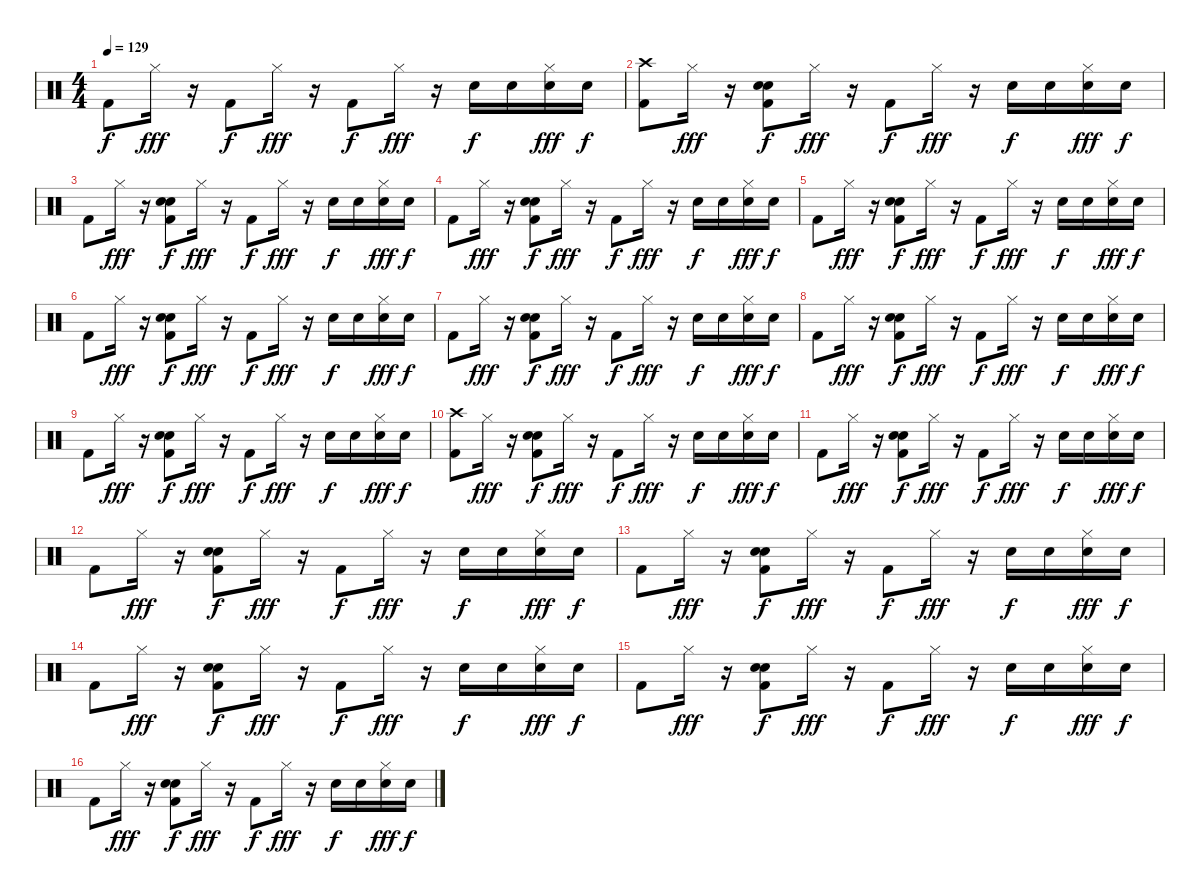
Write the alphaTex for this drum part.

\track "" {instrument percussion}
\staff {score}
\articulation defaults
\ts (4 4)
\tempo 129
\clef neutral
\ks c "Kick (hit) 2".8{dy f} "Hi-Hat (closed)".16{dy fff}
r.16 "Kick (hit) 2".8{dy f} "Hi-Hat (closed)".16{dy fff} r.16 "Kick (hit) 2".8{dy f} "Hi-Hat (closed)".16{dy fff} r.16 "Snare (hit) 2".16{dy f} "Snare (hit) 2".16 ("Snare (hit) 2" "Hi-Hat (closed)").16{dy fff} "Snare (hit) 2".16{dy f} |
("Kick (hit) 2" "Crash high (hit)").8 "Hi-Hat (closed)".16{dy fff} r.16 ("Kick (hit) 2" "Snare (hit) 2" "Hand Clap (hit)").8{dy f} "Hi-Hat (closed)".16{dy fff} r.16 "Kick (hit) 2".8{dy f} "Hi-Hat (closed)".16{dy fff} r.16 "Snare (hit) 2".16{dy f} "Snare (hit) 2".16 ("Snare (hit) 2" "Hi-Hat (closed)").16{dy fff} "Snare (hit) 2".16{dy f} |
"Kick (hit) 2".8 "Hi-Hat (closed)".16{dy fff} r.16 ("Snare (hit) 2" "Hand Clap (hit)" "Kick (hit) 2").8{dy f} "Hi-Hat (closed)".16{dy fff} r.16 "Kick (hit) 2".8{dy f} "Hi-Hat (closed)".16{dy fff} r.16 "Snare (hit) 2".16{dy f} "Snare (hit) 2".16 ("Snare (hit) 2" "Hi-Hat (closed)").16{dy fff} "Snare (hit) 2".16{dy f} |
"Kick (hit) 2".8 "Hi-Hat (closed)".16{dy fff} r.16 ("Snare (hit) 2" "Hand Clap (hit)" "Kick (hit) 2").8{dy f} "Hi-Hat (closed)".16{dy fff} r.16 "Kick (hit) 2".8{dy f} "Hi-Hat (closed)".16{dy fff} r.16 "Snare (hit) 2".16{dy f} "Snare (hit) 2".16 ("Snare (hit) 2" "Hi-Hat (closed)").16{dy fff} "Snare (hit) 2".16{dy f} |
"Kick (hit) 2".8 "Hi-Hat (closed)".16{dy fff} r.16 ("Snare (hit) 2" "Hand Clap (hit)" "Kick (hit) 2").8{dy f} "Hi-Hat (closed)".16{dy fff} r.16 "Kick (hit) 2".8{dy f} "Hi-Hat (closed)".16{dy fff} r.16 "Snare (hit) 2".16{dy f} "Snare (hit) 2".16 ("Snare (hit) 2" "Hi-Hat (closed)").16{dy fff} "Snare (hit) 2".16{dy f} |
"Kick (hit) 2".8 "Hi-Hat (closed)".16{dy fff} r.16 ("Snare (hit) 2" "Hand Clap (hit)" "Kick (hit) 2").8{dy f} "Hi-Hat (closed)".16{dy fff} r.16 "Kick (hit) 2".8{dy f} "Hi-Hat (closed)".16{dy fff} r.16 "Snare (hit) 2".16{dy f} "Snare (hit) 2".16 ("Snare (hit) 2" "Hi-Hat (closed)").16{dy fff} "Snare (hit) 2".16{dy f} |
"Kick (hit) 2".8 "Hi-Hat (closed)".16{dy fff} r.16 ("Snare (hit) 2" "Hand Clap (hit)" "Kick (hit) 2").8{dy f} "Hi-Hat (closed)".16{dy fff} r.16 "Kick (hit) 2".8{dy f} "Hi-Hat (closed)".16{dy fff} r.16 "Snare (hit) 2".16{dy f} "Snare (hit) 2".16 ("Snare (hit) 2" "Hi-Hat (closed)").16{dy fff} "Snare (hit) 2".16{dy f} |
"Kick (hit) 2".8 "Hi-Hat (closed)".16{dy fff} r.16 ("Kick (hit) 2" "Snare (hit) 2" "Hand Clap (hit)").8{dy f} "Hi-Hat (closed)".16{dy fff} r.16 "Kick (hit) 2".8{dy f} "Hi-Hat (closed)".16{dy fff} r.16 "Snare (hit) 2".16{dy f} "Snare (hit) 2".16 ("Snare (hit) 2" "Hi-Hat (closed)").16{dy fff} "Snare (hit) 2".16{dy f} |
"Kick (hit) 2".8 "Hi-Hat (closed)".16{dy fff} r.16 ("Snare (hit) 2" "Hand Clap (hit)" "Kick (hit) 2").8{dy f} "Hi-Hat (closed)".16{dy fff} r.16 "Kick (hit) 2".8{dy f} "Hi-Hat (closed)".16{dy fff} r.16 "Snare (hit) 2".16{dy f} "Snare (hit) 2".16 ("Snare (hit) 2" "Hi-Hat (closed)").16{dy fff} "Snare (hit) 2".16{dy f} |
("Kick (hit) 2" "Crash high (hit)").8 "Hi-Hat (closed)".16{dy fff} r.16 ("Kick (hit) 2" "Snare (hit) 2" "Hand Clap (hit)").8{dy f} "Hi-Hat (closed)".16{dy fff} r.16 "Kick (hit) 2".8{dy f} "Hi-Hat (closed)".16{dy fff} r.16 "Snare (hit) 2".16{dy f} "Snare (hit) 2".16 ("Snare (hit) 2" "Hi-Hat (closed)").16{dy fff} "Snare (hit) 2".16{dy f} |
"Kick (hit) 2".8 "Hi-Hat (closed)".16{dy fff} r.16 ("Snare (hit) 2" "Hand Clap (hit)" "Kick (hit) 2").8{dy f} "Hi-Hat (closed)".16{dy fff} r.16 "Kick (hit) 2".8{dy f} "Hi-Hat (closed)".16{dy fff} r.16 "Snare (hit) 2".16{dy f} "Snare (hit) 2".16 ("Snare (hit) 2" "Hi-Hat (closed)").16{dy fff} "Snare (hit) 2".16{dy f} |
"Kick (hit) 2".8 "Hi-Hat (closed)".16{dy fff} r.16 ("Snare (hit) 2" "Hand Clap (hit)" "Kick (hit) 2").8{dy f} "Hi-Hat (closed)".16{dy fff} r.16 "Kick (hit) 2".8{dy f} "Hi-Hat (closed)".16{dy fff} r.16 "Snare (hit) 2".16{dy f} "Snare (hit) 2".16 ("Snare (hit) 2" "Hi-Hat (closed)").16{dy fff} "Snare (hit) 2".16{dy f} |
"Kick (hit) 2".8 "Hi-Hat (closed)".16{dy fff} r.16 ("Snare (hit) 2" "Hand Clap (hit)" "Kick (hit) 2").8{dy f} "Hi-Hat (closed)".16{dy fff} r.16 "Kick (hit) 2".8{dy f} "Hi-Hat (closed)".16{dy fff} r.16 "Snare (hit) 2".16{dy f} "Snare (hit) 2".16 ("Snare (hit) 2" "Hi-Hat (closed)").16{dy fff} "Snare (hit) 2".16{dy f} |
"Kick (hit) 2".8 "Hi-Hat (closed)".16{dy fff} r.16 ("Snare (hit) 2" "Hand Clap (hit)" "Kick (hit) 2").8{dy f} "Hi-Hat (closed)".16{dy fff} r.16 "Kick (hit) 2".8{dy f} "Hi-Hat (closed)".16{dy fff} r.16 "Snare (hit) 2".16{dy f} "Snare (hit) 2".16 ("Snare (hit) 2" "Hi-Hat (closed)").16{dy fff} "Snare (hit) 2".16{dy f} |
"Kick (hit) 2".8 "Hi-Hat (closed)".16{dy fff} r.16 ("Snare (hit) 2" "Hand Clap (hit)" "Kick (hit) 2").8{dy f} "Hi-Hat (closed)".16{dy fff} r.16 "Kick (hit) 2".8{dy f} "Hi-Hat (closed)".16{dy fff} r.16 "Snare (hit) 2".16{dy f} "Snare (hit) 2".16 ("Snare (hit) 2" "Hi-Hat (closed)").16{dy fff} "Snare (hit) 2".16{dy f} |
"Kick (hit) 2".8 "Hi-Hat (closed)".16{dy fff} r.16 ("Kick (hit) 2" "Snare (hit) 2" "Hand Clap (hit)").8{dy f} "Hi-Hat (closed)".16{dy fff} r.16 "Kick (hit) 2".8{dy f} "Hi-Hat (closed)".16{dy fff} r.16 "Snare (hit) 2".16{dy f} "Snare (hit) 2".16 ("Snare (hit) 2" "Hi-Hat (closed)").16{dy fff} "Snare (hit) 2".16{dy f}
